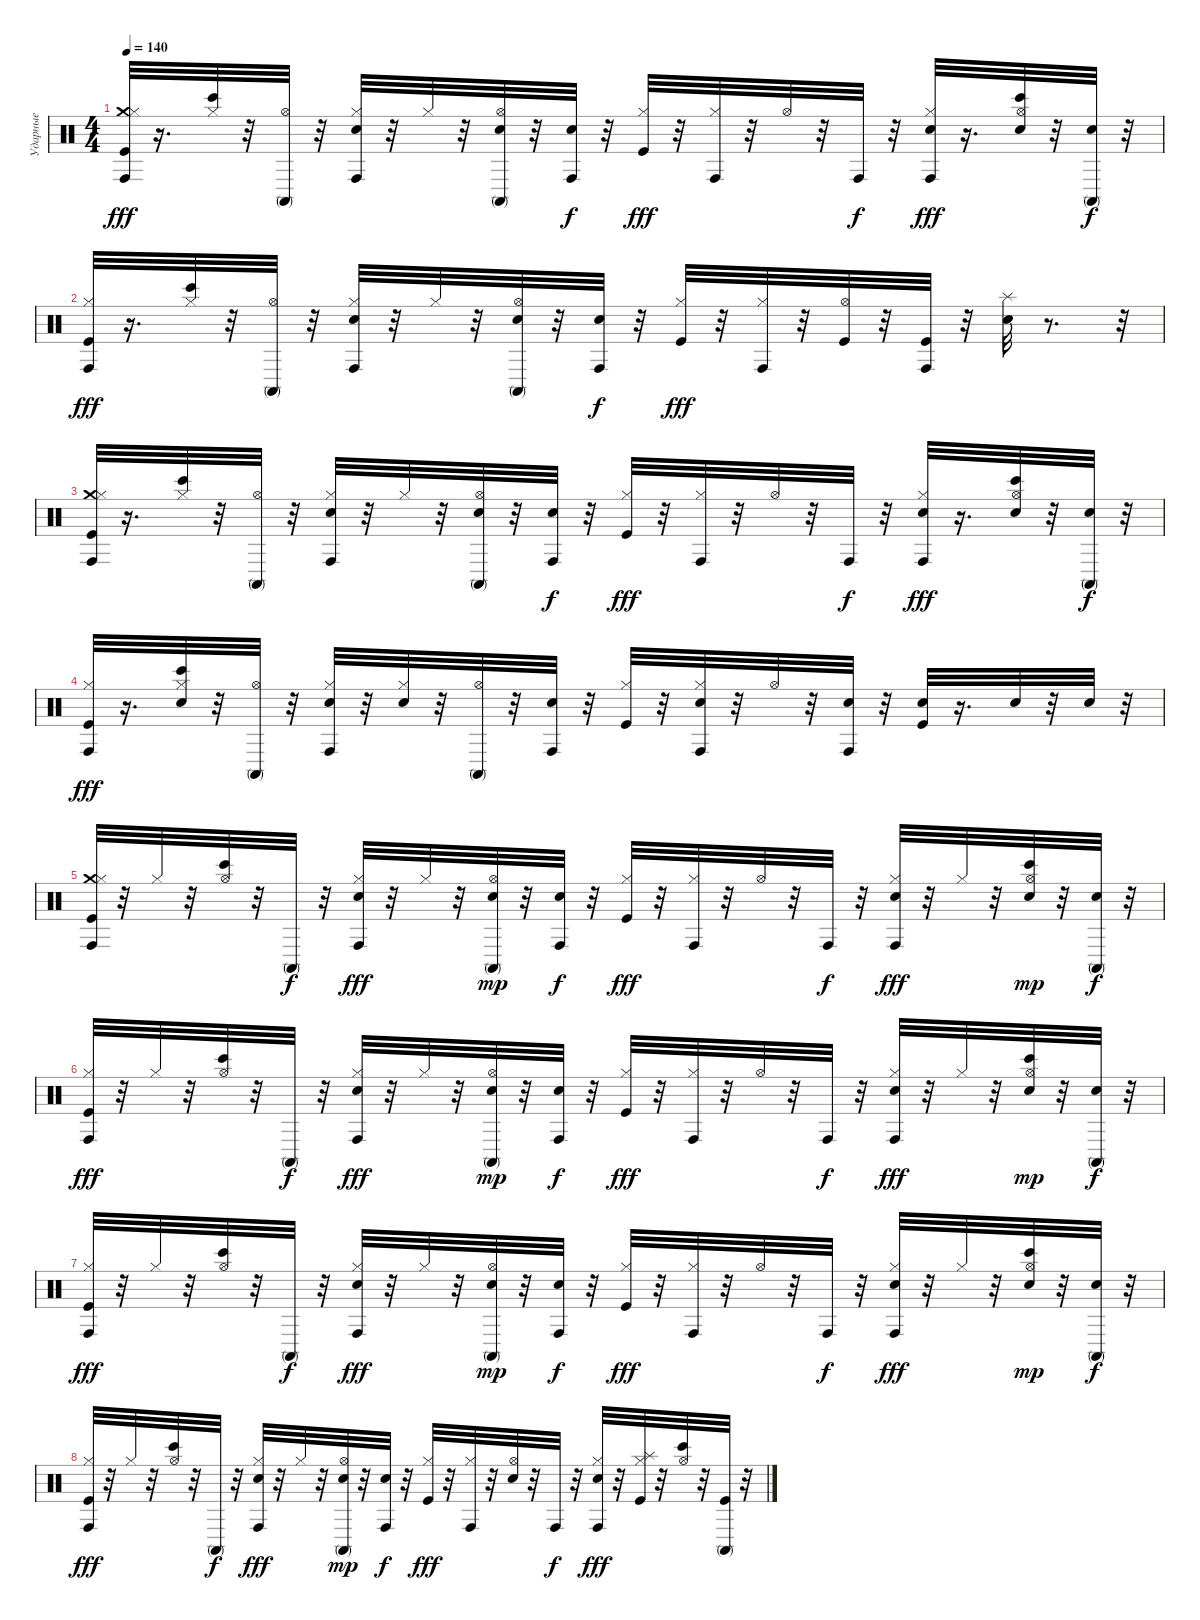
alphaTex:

\track ("Ударные" "Ударные") {instrument percussion}
\staff {score}
\articulation defaults
\ts (4 4)
\tempo 140
\clef neutral
\ks c
("Crash medium (hit)" "Kick (hit)" "Hi-Hat (closed)" "Conga high (hit)").32{dy fff} r.16{d} ("Hi-Hat (closed)" "Bongo High (hit)").32 r.32 ("Hi-Hat (open)" "Conga high (mute)").32 r.32 ("Electric Snare (hit)" "Hi-Hat (closed)" "Conga high (hit)").32 r.32 "Hi-Hat (closed)".32 r.32 ("Electric Snare (hit)" "Hi-Hat (open)" "Conga high (mute)").32 r.32 ("Electric Snare (hit)" "Conga high (hit)").32{dy f} r.32 ("Kick (hit)" "Hi-Hat (closed)").32{dy fff} r.32 ("Hi-Hat (closed)" "Conga high (hit)").32 r.32 "Hi-Hat (open)".32 r.32 "Conga high (hit)".32{dy f} r.32 ("Electric Snare (hit)" "Hi-Hat (closed)" "Conga high (hit)").32{dy fff} r.16{d} ("Electric Snare (hit)" "Hi-Hat (open)" "Bongo High (hit)").32 r.32 ("Electric Snare (hit)" "Conga high (mute)").32{dy f} r.32 |
("Hi-Hat (closed)" "Kick (hit)" "Conga high (hit)").32{dy fff} r.16{d} ("Hi-Hat (closed)" "Bongo High (hit)").32 r.32 ("Hi-Hat (open)" "Conga high (mute)").32 r.32 ("Electric Snare (hit)" "Hi-Hat (closed)" "Conga high (hit)").32 r.32 "Hi-Hat (closed)".32 r.32 ("Electric Snare (hit)" "Hi-Hat (open)" "Conga high (mute)").32 r.32 ("Electric Snare (hit)" "Conga high (hit)").32{dy f} r.32 ("Kick (hit)" "Hi-Hat (closed)").32{dy fff} r.32 ("Hi-Hat (closed)" "Conga high (hit)").32 r.32 ("Hi-Hat (open)" "Kick (hit)").32 r.32 ("Kick (hit)" "Conga high (hit)").32 r.32 ("Electric Snare (hit)" "Splash (hit)").32 r.8{d} r.32 |
("Crash medium (hit)" "Kick (hit)" "Hi-Hat (closed)" "Conga high (hit)").32 r.16{d} ("Hi-Hat (closed)" "Bongo High (hit)").32 r.32 ("Hi-Hat (open)" "Conga high (mute)").32 r.32 ("Electric Snare (hit)" "Hi-Hat (closed)" "Conga high (hit)").32 r.32 "Hi-Hat (closed)".32 r.32 ("Electric Snare (hit)" "Hi-Hat (open)" "Conga high (mute)").32 r.32 ("Electric Snare (hit)" "Conga high (hit)").32{dy f} r.32 ("Kick (hit)" "Hi-Hat (closed)").32{dy fff} r.32 ("Hi-Hat (closed)" "Conga high (hit)").32 r.32 "Hi-Hat (open)".32 r.32 "Conga high (hit)".32{dy f} r.32 ("Electric Snare (hit)" "Hi-Hat (closed)" "Conga high (hit)").32{dy fff} r.16{d} ("Electric Snare (hit)" "Hi-Hat (open)" "Bongo High (hit)").32 r.32 ("Electric Snare (hit)" "Conga high (mute)").32{dy f} r.32 |
("Hi-Hat (closed)" "Kick (hit)" "Conga high (hit)").32{dy fff} r.16{d} ("Hi-Hat (closed)" "Bongo High (hit)" "Electric Snare (hit)").32 r.32 ("Hi-Hat (open)" "Conga high (mute)").32 r.32 ("Hi-Hat (closed)" "Conga high (hit)" "Electric Snare (hit)").32 r.32 ("Hi-Hat (closed)" "Electric Snare (hit)").32 r.32 ("Hi-Hat (open)" "Conga high (mute)").32 r.32 ("Conga high (hit)" "Electric Snare (hit)").32 r.32 ("Hi-Hat (closed)" "Kick (hit)").32 r.32 ("Hi-Hat (closed)" "Conga high (hit)" "Electric Snare (hit)").32 r.32 "Hi-Hat (open)".32 r.32 ("Conga high (hit)" "Electric Snare (hit)").32 r.32 ("Electric Snare (hit)" "Kick (hit)").32 r.16{d} "Electric Snare (hit)".32 r.32 "Electric Snare (hit)".32 r.32 |
("Conga high (hit)" "Crash medium (hit)" "Hi-Hat (closed)" "Kick (hit)").32 r.32 "Hi-Hat (closed)".32 r.32 ("Bongo High (hit)" "Hi-Hat (open)").32 r.32 "Conga high (mute)".32{dy f} r.32 ("Conga high (hit)" "Hi-Hat (closed)" "Electric Snare (hit)").32{dy fff} r.32 "Hi-Hat (closed)".32 r.32 ("Conga high (mute)" "Hi-Hat (open)" "Electric Snare (hit)").32{dy mp} r.32 ("Conga high (hit)" "Electric Snare (hit)").32{dy f} r.32 ("Hi-Hat (closed)" "Kick (hit)").32{dy fff} r.32 ("Conga high (hit)" "Hi-Hat (closed)").32 r.32 "Hi-Hat (open)".32 r.32 "Conga high (hit)".32{dy f} r.32 ("Conga high (hit)" "Hi-Hat (closed)" "Electric Snare (hit)").32{dy fff} r.32 "Hi-Hat (closed)".32 r.32 ("Bongo High (hit)" "Hi-Hat (open)" "Electric Snare (hit)").32{dy mp} r.32 ("Conga high (mute)" "Electric Snare (hit)").32{dy f} r.32 |
("Hi-Hat (closed)" "Kick (hit)" "Conga high (hit)").32{dy fff} r.32 "Hi-Hat (closed)".32 r.32 ("Hi-Hat (open)" "Bongo High (hit)").32 r.32 "Conga high (mute)".32{dy f} r.32 ("Hi-Hat (closed)" "Electric Snare (hit)" "Conga high (hit)").32{dy fff} r.32 "Hi-Hat (closed)".32 r.32 ("Hi-Hat (open)" "Electric Snare (hit)" "Conga high (mute)").32{dy mp} r.32 ("Electric Snare (hit)" "Conga high (hit)").32{dy f} r.32 ("Hi-Hat (closed)" "Kick (hit)").32{dy fff} r.32 ("Hi-Hat (closed)" "Conga high (hit)").32 r.32 "Hi-Hat (open)".32 r.32 "Conga high (hit)".32{dy f} r.32 ("Hi-Hat (closed)" "Electric Snare (hit)" "Conga high (hit)").32{dy fff} r.32 "Hi-Hat (closed)".32 r.32 ("Hi-Hat (open)" "Electric Snare (hit)" "Bongo High (hit)").32{dy mp} r.32 ("Electric Snare (hit)" "Conga high (mute)").32{dy f} r.32 |
("Kick (hit)" "Hi-Hat (closed)" "Conga high (hit)").32{dy fff} r.32 "Hi-Hat (closed)".32 r.32 ("Bongo High (hit)" "Hi-Hat (open)").32 r.32 "Conga high (mute)".32{dy f} r.32 ("Conga high (hit)" "Hi-Hat (closed)" "Electric Snare (hit)").32{dy fff} r.32 "Hi-Hat (closed)".32 r.32 ("Conga high (mute)" "Hi-Hat (open)" "Electric Snare (hit)").32{dy mp} r.32 ("Conga high (hit)" "Electric Snare (hit)").32{dy f} r.32 ("Hi-Hat (closed)" "Kick (hit)").32{dy fff} r.32 ("Conga high (hit)" "Hi-Hat (closed)").32 r.32 "Hi-Hat (open)".32 r.32 "Conga high (hit)".32{dy f} r.32 ("Conga high (hit)" "Hi-Hat (closed)" "Electric Snare (hit)").32{dy fff} r.32 "Hi-Hat (closed)".32 r.32 ("Bongo High (hit)" "Hi-Hat (open)" "Electric Snare (hit)").32{dy mp} r.32 ("Conga high (mute)" "Electric Snare (hit)").32{dy f} r.32 |
("Hi-Hat (closed)" "Kick (hit)" "Conga high (hit)").32{dy fff} r.32 "Hi-Hat (closed)".32 r.32 ("Hi-Hat (open)" "Bongo High (hit)").32 r.32 "Conga high (mute)".32{dy f} r.32 ("Hi-Hat (closed)" "Electric Snare (hit)" "Conga high (hit)").32{dy fff} r.32 "Hi-Hat (closed)".32 r.32 ("Hi-Hat (open)" "Electric Snare (hit)" "Conga high (mute)").32{dy mp} r.32 ("Electric Snare (hit)" "Conga high (hit)").32{dy f} r.32 ("Hi-Hat (closed)" "Kick (hit)").32{dy fff} r.32 ("Hi-Hat (closed)" "Conga high (hit)").32 r.32 ("Hi-Hat (open)" "Electric Snare (hit)").32 r.32 "Conga high (hit)".32{dy f} r.32 ("Hi-Hat (closed)" "Conga high (hit)" "Electric Snare (hit)").32{dy fff} r.32 ("Hi-Hat (closed)" "Kick (hit)" "Splash (hit)").32 r.32 ("Hi-Hat (open)" "Bongo High (hit)").32 r.32 ("Conga high (mute)" "Kick (hit)").32 r.32
